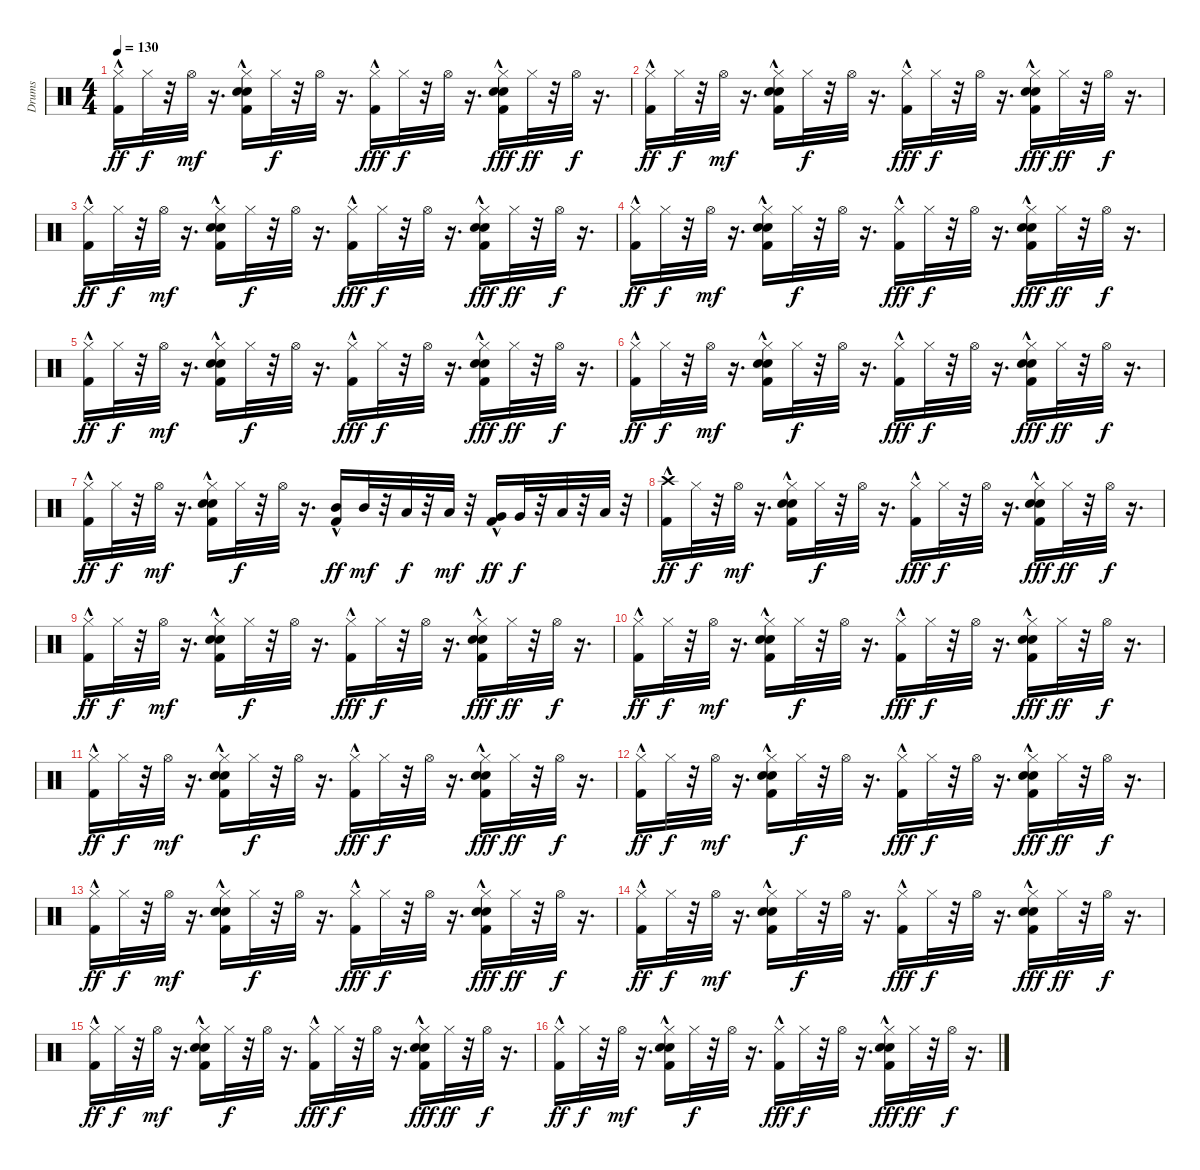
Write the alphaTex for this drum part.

\track ("Drums" "Drums") {instrument percussion}
\staff {score}
\articulation defaults
\ts (4 4)
\tempo 130
\clef neutral
\ks c
("Kick (hit) 2"{hac} "Hi-Hat (closed)").16{dy ff} "Hi-Hat (closed)".32{dy f} r.32 "Hi-Hat (open)".32{dy mf} r.16{d} ("Kick (hit) 2"{hac} "Hand Clap (hit)" "Electric Snare (hit)" "Hi-Hat (closed)").16 "Hi-Hat (closed)".32{dy f} r.32 "Hi-Hat (open)".32 r.16{d} ("Kick (hit) 2"{hac} "Hi-Hat (closed)").16{dy fff} "Hi-Hat (closed)".32{dy f} r.32 "Hi-Hat (open)".32 r.16{d} ("Kick (hit) 2"{hac} "Hand Clap (hit)" "Electric Snare (hit)" "Hi-Hat (closed)").16{dy fff} "Hi-Hat (closed)".32{dy ff} r.32 "Hi-Hat (open)".32{dy f} r.16{d} |
("Kick (hit) 2"{hac} "Hi-Hat (closed)").16{dy ff} "Hi-Hat (closed)".32{dy f} r.32 "Hi-Hat (open)".32{dy mf} r.16{d} ("Kick (hit) 2"{hac} "Hand Clap (hit)" "Electric Snare (hit)" "Hi-Hat (closed)").16 "Hi-Hat (closed)".32{dy f} r.32 "Hi-Hat (open)".32 r.16{d} ("Kick (hit) 2"{hac} "Hi-Hat (closed)").16{dy fff} "Hi-Hat (closed)".32{dy f} r.32 "Hi-Hat (open)".32 r.16{d} ("Kick (hit) 2"{hac} "Hand Clap (hit)" "Electric Snare (hit)" "Hi-Hat (closed)").16{dy fff} "Hi-Hat (closed)".32{dy ff} r.32 "Hi-Hat (open)".32{dy f} r.16{d} |
("Kick (hit) 2"{hac} "Hi-Hat (closed)").16{dy ff} "Hi-Hat (closed)".32{dy f} r.32 "Hi-Hat (open)".32{dy mf} r.16{d} ("Kick (hit) 2"{hac} "Hand Clap (hit)" "Electric Snare (hit)" "Hi-Hat (closed)").16 "Hi-Hat (closed)".32{dy f} r.32 "Hi-Hat (open)".32 r.16{d} ("Kick (hit) 2"{hac} "Hi-Hat (closed)").16{dy fff} "Hi-Hat (closed)".32{dy f} r.32 "Hi-Hat (open)".32 r.16{d} ("Kick (hit) 2"{hac} "Hand Clap (hit)" "Electric Snare (hit)" "Hi-Hat (closed)").16{dy fff} "Hi-Hat (closed)".32{dy ff} r.32 "Hi-Hat (open)".32{dy f} r.16{d} |
("Kick (hit) 2"{hac} "Hi-Hat (closed)").16{dy ff} "Hi-Hat (closed)".32{dy f} r.32 "Hi-Hat (open)".32{dy mf} r.16{d} ("Kick (hit) 2"{hac} "Hand Clap (hit)" "Electric Snare (hit)" "Hi-Hat (closed)").16 "Hi-Hat (closed)".32{dy f} r.32 "Hi-Hat (open)".32 r.16{d} ("Kick (hit) 2"{hac} "Hi-Hat (closed)").16{dy fff} "Hi-Hat (closed)".32{dy f} r.32 "Hi-Hat (open)".32 r.16{d} ("Kick (hit) 2"{hac} "Hand Clap (hit)" "Electric Snare (hit)" "Hi-Hat (closed)").16{dy fff} "Hi-Hat (closed)".32{dy ff} r.32 "Hi-Hat (open)".32{dy f} r.16{d} |
("Kick (hit) 2"{hac} "Hi-Hat (closed)").16{dy ff} "Hi-Hat (closed)".32{dy f} r.32 "Hi-Hat (open)".32{dy mf} r.16{d} ("Kick (hit) 2"{hac} "Hand Clap (hit)" "Electric Snare (hit)" "Hi-Hat (closed)").16 "Hi-Hat (closed)".32{dy f} r.32 "Hi-Hat (open)".32 r.16{d} ("Kick (hit) 2"{hac} "Hi-Hat (closed)").16{dy fff} "Hi-Hat (closed)".32{dy f} r.32 "Hi-Hat (open)".32 r.16{d} ("Kick (hit) 2"{hac} "Hand Clap (hit)" "Electric Snare (hit)" "Hi-Hat (closed)").16{dy fff} "Hi-Hat (closed)".32{dy ff} r.32 "Hi-Hat (open)".32{dy f} r.16{d} |
("Kick (hit) 2"{hac} "Hi-Hat (closed)").16{dy ff} "Hi-Hat (closed)".32{dy f} r.32 "Hi-Hat (open)".32{dy mf} r.16{d} ("Kick (hit) 2"{hac} "Hand Clap (hit)" "Electric Snare (hit)" "Hi-Hat (closed)").16 "Hi-Hat (closed)".32{dy f} r.32 "Hi-Hat (open)".32 r.16{d} ("Kick (hit) 2"{hac} "Hi-Hat (closed)").16{dy fff} "Hi-Hat (closed)".32{dy f} r.32 "Hi-Hat (open)".32 r.16{d} ("Kick (hit) 2"{hac} "Hand Clap (hit)" "Electric Snare (hit)" "Hi-Hat (closed)").16{dy fff} "Hi-Hat (closed)".32{dy ff} r.32 "Hi-Hat (open)".32{dy f} r.16{d} |
("Kick (hit) 2"{hac} "Hi-Hat (closed)").16{dy ff} "Hi-Hat (closed)".32{dy f} r.32 "Hi-Hat (open)".32{dy mf} r.16{d} ("Kick (hit) 2"{hac} "Hand Clap (hit)" "Electric Snare (hit)" "Hi-Hat (closed)").16 "Hi-Hat (closed)".32{dy f} r.32 "Hi-Hat (open)".32 r.16{d} ("Kick (hit) 2"{hac} "Mid Tom (hit)").16{dy ff} "Mid Tom (hit)".32{dy mf} r.32 "Low Tom (hit)".32{dy f} r.32 "Low Tom (hit)".32{dy mf} r.32 ("Kick (hit) 2"{hac} "Very Low Tom (hit)").16{dy ff} "Very Low Tom (hit)".32{dy f} r.32 "Low Floor Tom (hit)".32 r.32 "Low Floor Tom (hit)".32 r.32 |
("Kick (hit) 2"{hac} "Crash high (hit)").16{dy ff} "Hi-Hat (closed)".32{dy f} r.32 "Hi-Hat (open)".32{dy mf} r.16{d} ("Kick (hit) 2"{hac} "Hand Clap (hit)" "Electric Snare (hit)" "Hi-Hat (closed)").16 "Hi-Hat (closed)".32{dy f} r.32 "Hi-Hat (open)".32 r.16{d} ("Kick (hit) 2"{hac} "Hi-Hat (closed)").16{dy fff} "Hi-Hat (closed)".32{dy f} r.32 "Hi-Hat (open)".32 r.16{d} ("Kick (hit) 2"{hac} "Hand Clap (hit)" "Electric Snare (hit)" "Hi-Hat (closed)").16{dy fff} "Hi-Hat (closed)".32{dy ff} r.32 "Hi-Hat (open)".32{dy f} r.16{d} |
("Kick (hit) 2"{hac} "Hi-Hat (closed)").16{dy ff} "Hi-Hat (closed)".32{dy f} r.32 "Hi-Hat (open)".32{dy mf} r.16{d} ("Kick (hit) 2"{hac} "Hand Clap (hit)" "Electric Snare (hit)" "Hi-Hat (closed)").16 "Hi-Hat (closed)".32{dy f} r.32 "Hi-Hat (open)".32 r.16{d} ("Kick (hit) 2"{hac} "Hi-Hat (closed)").16{dy fff} "Hi-Hat (closed)".32{dy f} r.32 "Hi-Hat (open)".32 r.16{d} ("Kick (hit) 2"{hac} "Hand Clap (hit)" "Electric Snare (hit)" "Hi-Hat (closed)").16{dy fff} "Hi-Hat (closed)".32{dy ff} r.32 "Hi-Hat (open)".32{dy f} r.16{d} |
("Kick (hit) 2"{hac} "Hi-Hat (closed)").16{dy ff} "Hi-Hat (closed)".32{dy f} r.32 "Hi-Hat (open)".32{dy mf} r.16{d} ("Kick (hit) 2"{hac} "Hand Clap (hit)" "Electric Snare (hit)" "Hi-Hat (closed)").16 "Hi-Hat (closed)".32{dy f} r.32 "Hi-Hat (open)".32 r.16{d} ("Kick (hit) 2"{hac} "Hi-Hat (closed)").16{dy fff} "Hi-Hat (closed)".32{dy f} r.32 "Hi-Hat (open)".32 r.16{d} ("Kick (hit) 2"{hac} "Hand Clap (hit)" "Electric Snare (hit)" "Hi-Hat (closed)").16{dy fff} "Hi-Hat (closed)".32{dy ff} r.32 "Hi-Hat (open)".32{dy f} r.16{d} |
("Kick (hit) 2"{hac} "Hi-Hat (closed)").16{dy ff} "Hi-Hat (closed)".32{dy f} r.32 "Hi-Hat (open)".32{dy mf} r.16{d} ("Kick (hit) 2"{hac} "Hand Clap (hit)" "Electric Snare (hit)" "Hi-Hat (closed)").16 "Hi-Hat (closed)".32{dy f} r.32 "Hi-Hat (open)".32 r.16{d} ("Kick (hit) 2"{hac} "Hi-Hat (closed)").16{dy fff} "Hi-Hat (closed)".32{dy f} r.32 "Hi-Hat (open)".32 r.16{d} ("Kick (hit) 2"{hac} "Hand Clap (hit)" "Electric Snare (hit)" "Hi-Hat (closed)").16{dy fff} "Hi-Hat (closed)".32{dy ff} r.32 "Hi-Hat (open)".32{dy f} r.16{d} |
("Kick (hit) 2"{hac} "Hi-Hat (closed)").16{dy ff} "Hi-Hat (closed)".32{dy f} r.32 "Hi-Hat (open)".32{dy mf} r.16{d} ("Kick (hit) 2"{hac} "Hand Clap (hit)" "Electric Snare (hit)" "Hi-Hat (closed)").16 "Hi-Hat (closed)".32{dy f} r.32 "Hi-Hat (open)".32 r.16{d} ("Kick (hit) 2"{hac} "Hi-Hat (closed)").16{dy fff} "Hi-Hat (closed)".32{dy f} r.32 "Hi-Hat (open)".32 r.16{d} ("Kick (hit) 2"{hac} "Hand Clap (hit)" "Electric Snare (hit)" "Hi-Hat (closed)").16{dy fff} "Hi-Hat (closed)".32{dy ff} r.32 "Hi-Hat (open)".32{dy f} r.16{d} |
("Kick (hit) 2"{hac} "Hi-Hat (closed)").16{dy ff} "Hi-Hat (closed)".32{dy f} r.32 "Hi-Hat (open)".32{dy mf} r.16{d} ("Kick (hit) 2"{hac} "Hand Clap (hit)" "Electric Snare (hit)" "Hi-Hat (closed)").16 "Hi-Hat (closed)".32{dy f} r.32 "Hi-Hat (open)".32 r.16{d} ("Kick (hit) 2"{hac} "Hi-Hat (closed)").16{dy fff} "Hi-Hat (closed)".32{dy f} r.32 "Hi-Hat (open)".32 r.16{d} ("Kick (hit) 2"{hac} "Hand Clap (hit)" "Electric Snare (hit)" "Hi-Hat (closed)").16{dy fff} "Hi-Hat (closed)".32{dy ff} r.32 "Hi-Hat (open)".32{dy f} r.16{d} |
("Kick (hit) 2"{hac} "Hi-Hat (closed)").16{dy ff} "Hi-Hat (closed)".32{dy f} r.32 "Hi-Hat (open)".32{dy mf} r.16{d} ("Kick (hit) 2"{hac} "Hand Clap (hit)" "Electric Snare (hit)" "Hi-Hat (closed)").16 "Hi-Hat (closed)".32{dy f} r.32 "Hi-Hat (open)".32 r.16{d} ("Kick (hit) 2"{hac} "Hi-Hat (closed)").16{dy fff} "Hi-Hat (closed)".32{dy f} r.32 "Hi-Hat (open)".32 r.16{d} ("Kick (hit) 2"{hac} "Hand Clap (hit)" "Electric Snare (hit)" "Hi-Hat (closed)").16{dy fff} "Hi-Hat (closed)".32{dy ff} r.32 "Hi-Hat (open)".32{dy f} r.16{d} |
("Kick (hit) 2"{hac} "Hi-Hat (closed)").16{dy ff} "Hi-Hat (closed)".32{dy f} r.32 "Hi-Hat (open)".32{dy mf} r.16{d} ("Kick (hit) 2"{hac} "Hand Clap (hit)" "Electric Snare (hit)" "Hi-Hat (closed)").16 "Hi-Hat (closed)".32{dy f} r.32 "Hi-Hat (open)".32 r.16{d} ("Kick (hit) 2"{hac} "Hi-Hat (closed)").16{dy fff} "Hi-Hat (closed)".32{dy f} r.32 "Hi-Hat (open)".32 r.16{d} ("Kick (hit) 2"{hac} "Hand Clap (hit)" "Electric Snare (hit)" "Hi-Hat (closed)").16{dy fff} "Hi-Hat (closed)".32{dy ff} r.32 "Hi-Hat (open)".32{dy f} r.16{d} |
("Kick (hit) 2"{hac} "Hi-Hat (closed)").16{dy ff} "Hi-Hat (closed)".32{dy f} r.32 "Hi-Hat (open)".32{dy mf} r.16{d} ("Kick (hit) 2"{hac} "Hand Clap (hit)" "Electric Snare (hit)" "Hi-Hat (closed)").16 "Hi-Hat (closed)".32{dy f} r.32 "Hi-Hat (open)".32 r.16{d} ("Kick (hit) 2"{hac} "Hi-Hat (closed)").16{dy fff} "Hi-Hat (closed)".32{dy f} r.32 "Hi-Hat (open)".32 r.16{d} ("Kick (hit) 2"{hac} "Hand Clap (hit)" "Electric Snare (hit)" "Hi-Hat (closed)").16{dy fff} "Hi-Hat (closed)".32{dy ff} r.32 "Hi-Hat (open)".32{dy f} r.16{d}
